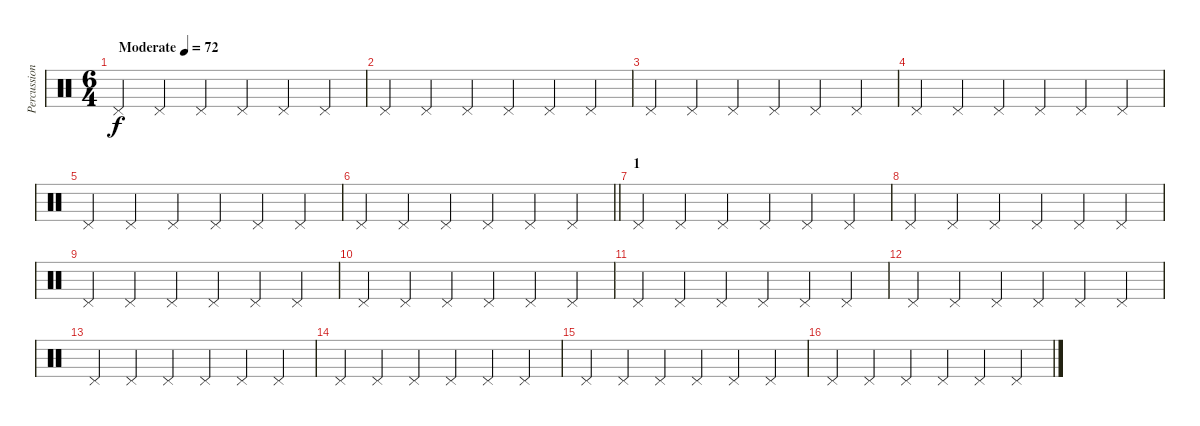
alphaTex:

\track ("Percussion" "Percussion") {instrument percussion}
\staff {score}
\articulation defaults
\ts (6 4)
\tempo (72 "Moderate")
\clef neutral
\ks c "Pedal Hi-Hat (hit)".4{dy f} "Pedal Hi-Hat (hit)".4 "Pedal Hi-Hat (hit)".4 "Pedal Hi-Hat (hit)".4 "Pedal Hi-Hat (hit)".4 "Pedal Hi-Hat (hit)".4
|
"Pedal Hi-Hat (hit)".4 "Pedal Hi-Hat (hit)".4 "Pedal Hi-Hat (hit)".4 "Pedal Hi-Hat (hit)".4 "Pedal Hi-Hat (hit)".4 "Pedal Hi-Hat (hit)".4 |
"Pedal Hi-Hat (hit)".4 "Pedal Hi-Hat (hit)".4 "Pedal Hi-Hat (hit)".4 "Pedal Hi-Hat (hit)".4 "Pedal Hi-Hat (hit)".4 "Pedal Hi-Hat (hit)".4 |
"Pedal Hi-Hat (hit)".4 "Pedal Hi-Hat (hit)".4 "Pedal Hi-Hat (hit)".4 "Pedal Hi-Hat (hit)".4 "Pedal Hi-Hat (hit)".4 "Pedal Hi-Hat (hit)".4 |
"Pedal Hi-Hat (hit)".4 "Pedal Hi-Hat (hit)".4 "Pedal Hi-Hat (hit)".4 "Pedal Hi-Hat (hit)".4 "Pedal Hi-Hat (hit)".4 "Pedal Hi-Hat (hit)".4 |
\barLineRight lightlight "Pedal Hi-Hat (hit)".4 "Pedal Hi-Hat (hit)".4 "Pedal Hi-Hat (hit)".4 "Pedal Hi-Hat (hit)".4 "Pedal Hi-Hat (hit)".4 "Pedal Hi-Hat (hit)".4
|
\section ("" "1")
"Pedal Hi-Hat (hit)".4 "Pedal Hi-Hat (hit)".4 "Pedal Hi-Hat (hit)".4 "Pedal Hi-Hat (hit)".4 "Pedal Hi-Hat (hit)".4 "Pedal Hi-Hat (hit)".4 |
"Pedal Hi-Hat (hit)".4 "Pedal Hi-Hat (hit)".4 "Pedal Hi-Hat (hit)".4 "Pedal Hi-Hat (hit)".4 "Pedal Hi-Hat (hit)".4 "Pedal Hi-Hat (hit)".4 |
"Pedal Hi-Hat (hit)".4 "Pedal Hi-Hat (hit)".4 "Pedal Hi-Hat (hit)".4 "Pedal Hi-Hat (hit)".4 "Pedal Hi-Hat (hit)".4 "Pedal Hi-Hat (hit)".4 |
"Pedal Hi-Hat (hit)".4 "Pedal Hi-Hat (hit)".4 "Pedal Hi-Hat (hit)".4 "Pedal Hi-Hat (hit)".4 "Pedal Hi-Hat (hit)".4 "Pedal Hi-Hat (hit)".4 |
"Pedal Hi-Hat (hit)".4 "Pedal Hi-Hat (hit)".4 "Pedal Hi-Hat (hit)".4 "Pedal Hi-Hat (hit)".4 "Pedal Hi-Hat (hit)".4 "Pedal Hi-Hat (hit)".4 |
"Pedal Hi-Hat (hit)".4 "Pedal Hi-Hat (hit)".4 "Pedal Hi-Hat (hit)".4 "Pedal Hi-Hat (hit)".4 "Pedal Hi-Hat (hit)".4 "Pedal Hi-Hat (hit)".4 |
"Pedal Hi-Hat (hit)".4 "Pedal Hi-Hat (hit)".4 "Pedal Hi-Hat (hit)".4 "Pedal Hi-Hat (hit)".4 "Pedal Hi-Hat (hit)".4 "Pedal Hi-Hat (hit)".4 |
"Pedal Hi-Hat (hit)".4 "Pedal Hi-Hat (hit)".4 "Pedal Hi-Hat (hit)".4 "Pedal Hi-Hat (hit)".4 "Pedal Hi-Hat (hit)".4 "Pedal Hi-Hat (hit)".4 |
"Pedal Hi-Hat (hit)".4 "Pedal Hi-Hat (hit)".4 "Pedal Hi-Hat (hit)".4 "Pedal Hi-Hat (hit)".4 "Pedal Hi-Hat (hit)".4 "Pedal Hi-Hat (hit)".4 |
"Pedal Hi-Hat (hit)".4 "Pedal Hi-Hat (hit)".4 "Pedal Hi-Hat (hit)".4 "Pedal Hi-Hat (hit)".4 "Pedal Hi-Hat (hit)".4 "Pedal Hi-Hat (hit)".4
